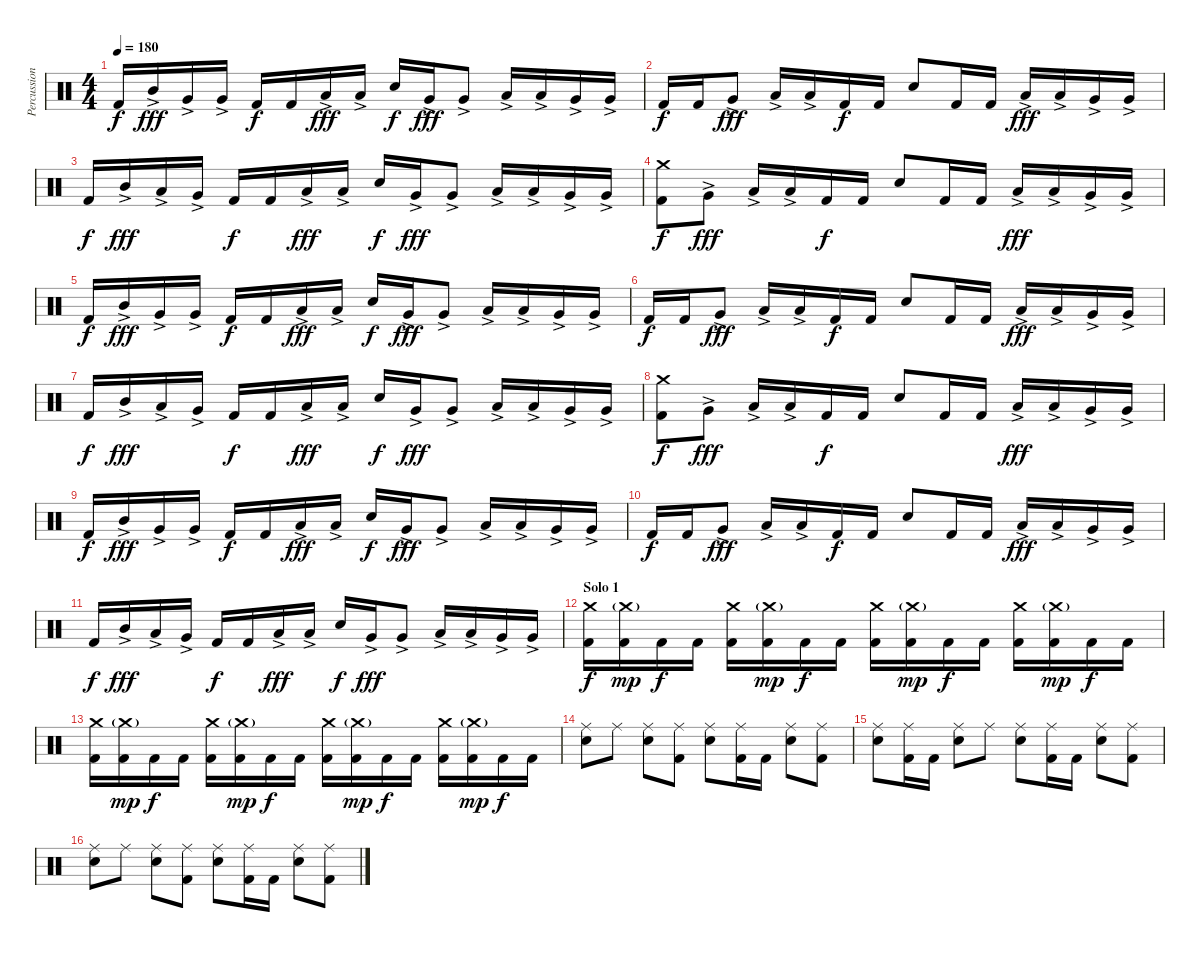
\track ("Percussion" "Percussion") {instrument percussion}
\staff {score}
\articulation defaults
\ts (4 4)
\tempo 180
\clef neutral
\ks c "Kick (hit) 2".16{dy f} "Mid Tom (hit)"{ac}.16{dy fff} "Very Low Tom (hit)"{ac}.16 "Very Low Tom (hit)"{ac}.16 "Kick (hit) 2".16{dy f} "Kick (hit) 2".16 "Low Floor Tom (hit)"{ac}.16{dy fff} "Low Floor Tom (hit)"{ac}.16 "Snare (hit) 2".16{dy f} "Very Low Tom (hit)"{ac}.16{dy fff} "Very Low Tom (hit)"{ac}.8 "Low Tom (hit)"{ac}.16 "Low Tom (hit)"{ac}.16 "Very Low Tom (hit)"{ac}.16 "Very Low Tom (hit)"{ac}.16
|
"Kick (hit) 2".16{dy f volume 16} "Kick (hit) 2".16 "Very Low Tom (hit)"{ac}.8{dy fff} "Low Tom (hit)"{ac}.16 "Low Tom (hit)"{ac}.16 "Kick (hit) 2".16{dy f} "Kick (hit) 2".16 "Snare (hit) 2".8 "Kick (hit) 2".16 "Kick (hit) 2".16 "Low Tom (hit)"{ac}.16{dy fff} "Low Tom (hit)"{ac}.16 "Very Low Tom (hit)"{ac}.16 "Very Low Tom (hit)"{ac}.16 |
"Kick (hit) 2".16{dy f} "Mid Tom (hit)"{ac}.16{dy fff} "Low Tom (hit)"{ac}.16 "Very Low Tom (hit)"{ac}.16 "Kick (hit) 2".16{dy f} "Kick (hit) 2".16 "Low Floor Tom (hit)"{ac}.16{dy fff} "Low Floor Tom (hit)"{ac}.16 "Snare (hit) 2".16{dy f} "Very Low Tom (hit)"{ac}.16{dy fff} "Very Low Tom (hit)"{ac}.8 "Low Tom (hit)"{ac}.16 "Low Tom (hit)"{ac}.16 "Very Low Tom (hit)"{ac}.16 "Very Low Tom (hit)"{ac}.16 |
("Crash medium (hit)" "Kick (hit) 2").8{dy f volume 16} "Very Low Tom (hit)"{ac}.8{dy fff} "Low Tom (hit)"{ac}.16 "Low Tom (hit)"{ac}.16 "Kick (hit) 2".16{dy f} "Kick (hit) 2".16 "Snare (hit) 2".8 "Kick (hit) 2".16 "Kick (hit) 2".16 "Low Tom (hit)"{ac}.16{dy fff} "Low Tom (hit)"{ac}.16 "Very Low Tom (hit)"{ac}.16 "Very Low Tom (hit)"{ac}.16 |
"Kick (hit) 2".16{dy f} "Mid Tom (hit)"{ac}.16{dy fff} "Very Low Tom (hit)"{ac}.16 "Very Low Tom (hit)"{ac}.16 "Kick (hit) 2".16{dy f} "Kick (hit) 2".16 "Low Floor Tom (hit)"{ac}.16{dy fff} "Low Floor Tom (hit)"{ac}.16 "Snare (hit) 2".16{dy f} "Very Low Tom (hit)"{ac}.16{dy fff} "Very Low Tom (hit)"{ac}.8 "Low Tom (hit)"{ac}.16 "Low Tom (hit)"{ac}.16 "Very Low Tom (hit)"{ac}.16 "Very Low Tom (hit)"{ac}.16 |
"Kick (hit) 2".16{dy f volume 16} "Kick (hit) 2".16 "Very Low Tom (hit)"{ac}.8{dy fff} "Low Tom (hit)"{ac}.16 "Low Tom (hit)"{ac}.16 "Kick (hit) 2".16{dy f} "Kick (hit) 2".16 "Snare (hit) 2".8 "Kick (hit) 2".16 "Kick (hit) 2".16 "Low Tom (hit)"{ac}.16{dy fff} "Low Tom (hit)"{ac}.16 "Very Low Tom (hit)"{ac}.16 "Very Low Tom (hit)"{ac}.16 |
"Kick (hit) 2".16{dy f} "Mid Tom (hit)"{ac}.16{dy fff} "Low Tom (hit)"{ac}.16 "Very Low Tom (hit)"{ac}.16 "Kick (hit) 2".16{dy f} "Kick (hit) 2".16 "Low Floor Tom (hit)"{ac}.16{dy fff} "Low Floor Tom (hit)"{ac}.16 "Snare (hit) 2".16{dy f} "Very Low Tom (hit)"{ac}.16{dy fff} "Very Low Tom (hit)"{ac}.8 "Low Tom (hit)"{ac}.16 "Low Tom (hit)"{ac}.16 "Very Low Tom (hit)"{ac}.16 "Very Low Tom (hit)"{ac}.16 |
("Crash medium (hit)" "Kick (hit) 2").8{dy f volume 16} "Very Low Tom (hit)"{ac}.8{dy fff} "Low Tom (hit)"{ac}.16 "Low Tom (hit)"{ac}.16 "Kick (hit) 2".16{dy f} "Kick (hit) 2".16 "Snare (hit) 2".8 "Kick (hit) 2".16 "Kick (hit) 2".16 "Low Tom (hit)"{ac}.16{dy fff} "Low Tom (hit)"{ac}.16 "Very Low Tom (hit)"{ac}.16 "Very Low Tom (hit)"{ac}.16 |
"Kick (hit) 2".16{dy f} "Mid Tom (hit)"{ac}.16{dy fff} "Very Low Tom (hit)"{ac}.16 "Very Low Tom (hit)"{ac}.16 "Kick (hit) 2".16{dy f} "Kick (hit) 2".16 "Low Floor Tom (hit)"{ac}.16{dy fff} "Low Floor Tom (hit)"{ac}.16 "Snare (hit) 2".16{dy f} "Very Low Tom (hit)"{ac}.16{dy fff} "Very Low Tom (hit)"{ac}.8 "Low Tom (hit)"{ac}.16 "Low Tom (hit)"{ac}.16 "Very Low Tom (hit)"{ac}.16 "Very Low Tom (hit)"{ac}.16 |
"Kick (hit) 2".16{dy f volume 16} "Kick (hit) 2".16 "Very Low Tom (hit)"{ac}.8{dy fff} "Low Tom (hit)"{ac}.16 "Low Tom (hit)"{ac}.16 "Kick (hit) 2".16{dy f} "Kick (hit) 2".16 "Snare (hit) 2".8 "Kick (hit) 2".16 "Kick (hit) 2".16 "Low Tom (hit)"{ac}.16{dy fff} "Low Tom (hit)"{ac}.16 "Very Low Tom (hit)"{ac}.16 "Very Low Tom (hit)"{ac}.16 |
"Kick (hit) 2".16{dy f} "Mid Tom (hit)"{ac}.16{dy fff} "Low Tom (hit)"{ac}.16 "Very Low Tom (hit)"{ac}.16 "Kick (hit) 2".16{dy f} "Kick (hit) 2".16 "Low Floor Tom (hit)"{ac}.16{dy fff} "Low Floor Tom (hit)"{ac}.16 "Snare (hit) 2".16{dy f} "Very Low Tom (hit)"{ac}.16{dy fff} "Very Low Tom (hit)"{ac}.8 "Low Tom (hit)"{ac}.16 "Low Tom (hit)"{ac}.16 "Very Low Tom (hit)"{ac}.16 "Very Low Tom (hit)"{ac}.16 |
\section ("" "Solo 1")
("Crash medium (hit)" "Kick (hit) 2").16{dy f} ("Crash medium (hit)"{g} "Kick (hit) 2").16{dy mp} "Kick (hit) 2".16{dy f} "Kick (hit) 2".16 ("Crash medium (hit)" "Kick (hit) 2").16 ("Crash medium (hit)"{g} "Kick (hit) 2").16{dy mp} "Kick (hit) 2".16{dy f} "Kick (hit) 2".16 ("Crash medium (hit)" "Kick (hit) 2").16 ("Crash medium (hit)"{g} "Kick (hit) 2").16{dy mp} "Kick (hit) 2".16{dy f} "Kick (hit) 2".16 ("Crash medium (hit)" "Kick (hit) 2").16 ("Crash medium (hit)"{g} "Kick (hit) 2").16{dy mp} "Kick (hit) 2".16{dy f} "Kick (hit) 2".16 |
("Crash medium (hit)" "Kick (hit) 2").16 ("Crash medium (hit)"{g} "Kick (hit) 2").16{dy mp} "Kick (hit) 2".16{dy f} "Kick (hit) 2".16 ("Crash medium (hit)" "Kick (hit) 2").16 ("Crash medium (hit)"{g} "Kick (hit) 2").16{dy mp} "Kick (hit) 2".16{dy f} "Kick (hit) 2".16 ("Crash medium (hit)" "Kick (hit) 2").16 ("Crash medium (hit)"{g} "Kick (hit) 2").16{dy mp} "Kick (hit) 2".16{dy f} "Kick (hit) 2".16 ("Crash medium (hit)" "Kick (hit) 2").16 ("Crash medium (hit)"{g} "Kick (hit) 2").16{dy mp} "Kick (hit) 2".16{dy f} "Kick (hit) 2".16 |
("Ride (middle)" "Electric Snare (hit)").8 "Ride (middle)".8 ("Ride (middle)" "Electric Snare (hit)").8 ("Ride (middle)" "Kick (hit) 2").8 ("Ride (middle)" "Electric Snare (hit)").8 ("Ride (middle)" "Kick (hit) 2").16 "Kick (hit) 2".16 ("Ride (middle)" "Electric Snare (hit)").8 ("Ride (middle)" "Kick (hit) 2").8 |
("Ride (middle)" "Electric Snare (hit)").8 ("Ride (middle)" "Kick (hit) 2").16 "Kick (hit) 2".16 ("Ride (middle)" "Electric Snare (hit)").8 "Ride (middle)".8 ("Ride (middle)" "Electric Snare (hit)").8 ("Ride (middle)" "Kick (hit) 2").16 "Kick (hit) 2".16 ("Ride (middle)" "Electric Snare (hit)").8 ("Ride (middle)" "Kick (hit) 2").8 |
("Ride (middle)" "Electric Snare (hit)").8 "Ride (middle)".8 ("Ride (middle)" "Electric Snare (hit)").8 ("Ride (middle)" "Kick (hit) 2").8 ("Ride (middle)" "Electric Snare (hit)").8 ("Ride (middle)" "Kick (hit) 2").16 "Kick (hit) 2".16 ("Ride (middle)" "Electric Snare (hit)").8 ("Ride (middle)" "Kick (hit) 2").8
